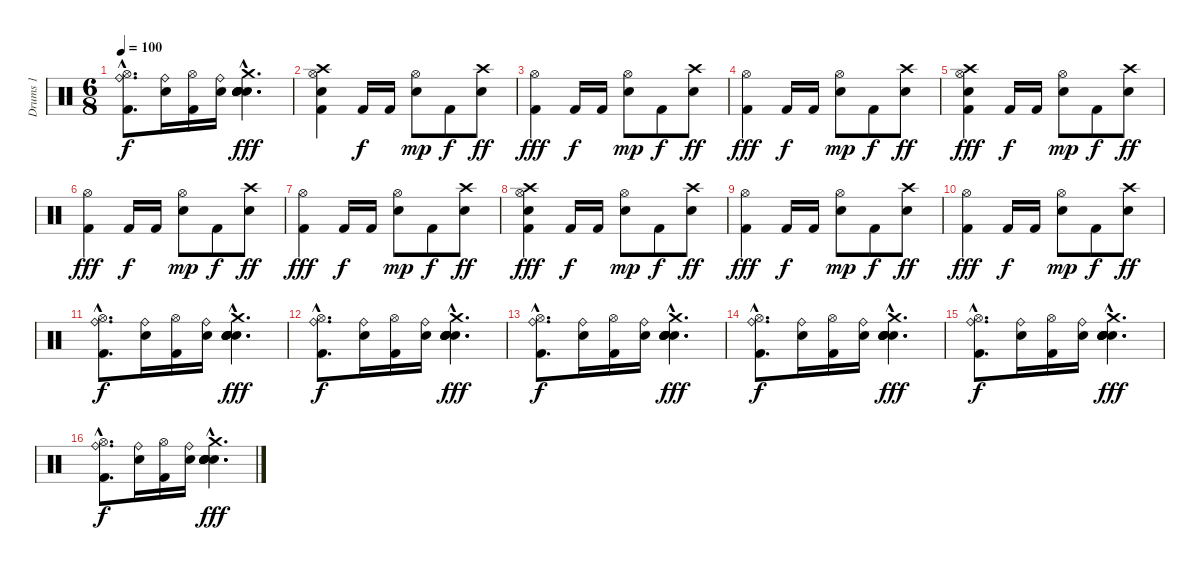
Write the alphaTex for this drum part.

\track ("Drums 1" "Drums 1") {instrument percussion}
\staff {score}
\articulation defaults
\ts (6 8)
\tempo 100
\clef neutral
\ks c
("Kick (hit) 2"{hac} "Ride (bell)"{hac} "Hi-Hat (open)"{hac}).8{d dy f} ("Snare (hit) 2" "Ride (bell)").16 ("Kick (hit) 2" "Hi-Hat (open)").16 ("Snare (hit) 2" "Ride (bell)").16 ("Snare (hit) 2"{hac} "Snare (hit) 2"{hac} "Snare (hit) 2"{hac} "Snare (hit) 2"{hac} "Snare (hit) 2"{hac} "Crash medium (hit)"{hac}).4{d bu 480 dy fff} |
("Kick (hit) 2" "Snare (hit) 2" "Crash high (hit)" "Hi-Hat (open)").4 "Kick (hit) 2".16{dy f} "Kick (hit) 2".16 ("Snare (hit) 2" "Hi-Hat (open)").8{dy mp} "Kick (hit) 2".8{dy f} ("Snare (hit) 2" "Crash high (hit)").8{dy ff} |
("Kick (hit) 2" "Hi-Hat (open)").4{dy fff} "Kick (hit) 2".16{dy f} "Kick (hit) 2".16 ("Snare (hit) 2" "Hi-Hat (open)").8{dy mp} "Kick (hit) 2".8{dy f} ("Snare (hit) 2" "Crash high (hit)").8{dy ff} |
("Kick (hit) 2" "Hi-Hat (open)").4{dy fff} "Kick (hit) 2".16{dy f} "Kick (hit) 2".16 ("Snare (hit) 2" "Hi-Hat (open)").8{dy mp} "Kick (hit) 2".8{dy f} ("Snare (hit) 2" "Crash high (hit)").8{dy ff} |
("Kick (hit) 2" "Snare (hit) 2" "Crash high (hit)" "Hi-Hat (open)").4{dy fff} "Kick (hit) 2".16{dy f} "Kick (hit) 2".16 ("Snare (hit) 2" "Hi-Hat (open)").8{dy mp} "Kick (hit) 2".8{dy f} ("Snare (hit) 2" "Crash high (hit)").8{dy ff} |
("Kick (hit) 2" "Hi-Hat (open)").4{dy fff} "Kick (hit) 2".16{dy f} "Kick (hit) 2".16 ("Snare (hit) 2" "Hi-Hat (open)").8{dy mp} "Kick (hit) 2".8{dy f} ("Snare (hit) 2" "Crash high (hit)").8{dy ff} |
("Kick (hit) 2" "Hi-Hat (open)").4{dy fff} "Kick (hit) 2".16{dy f} "Kick (hit) 2".16 ("Snare (hit) 2" "Hi-Hat (open)").8{dy mp} "Kick (hit) 2".8{dy f} ("Snare (hit) 2" "Crash high (hit)").8{dy ff} |
("Kick (hit) 2" "Snare (hit) 2" "Crash high (hit)" "Hi-Hat (open)").4{dy fff} "Kick (hit) 2".16{dy f} "Kick (hit) 2".16 ("Snare (hit) 2" "Hi-Hat (open)").8{dy mp} "Kick (hit) 2".8{dy f} ("Snare (hit) 2" "Crash high (hit)").8{dy ff} |
("Kick (hit) 2" "Hi-Hat (open)").4{dy fff} "Kick (hit) 2".16{dy f} "Kick (hit) 2".16 ("Snare (hit) 2" "Hi-Hat (open)").8{dy mp} "Kick (hit) 2".8{dy f} ("Snare (hit) 2" "Crash high (hit)").8{dy ff} |
("Kick (hit) 2" "Hi-Hat (open)").4{dy fff} "Kick (hit) 2".16{dy f} "Kick (hit) 2".16 ("Snare (hit) 2" "Hi-Hat (open)").8{dy mp} "Kick (hit) 2".8{dy f} ("Snare (hit) 2" "Crash high (hit)").8{dy ff} |
("Kick (hit) 2"{hac} "Ride (bell)"{hac} "Hi-Hat (open)"{hac}).8{d dy f} ("Snare (hit) 2" "Ride (bell)").16 ("Kick (hit) 2" "Hi-Hat (open)").16 ("Snare (hit) 2" "Ride (bell)").16 ("Snare (hit) 2"{hac} "Snare (hit) 2"{hac} "Snare (hit) 2"{hac} "Snare (hit) 2"{hac} "Snare (hit) 2"{hac} "Crash medium (hit)"{hac}).4{d bu 480 dy fff} |
("Kick (hit) 2"{hac} "Ride (bell)"{hac} "Hi-Hat (open)"{hac}).8{d dy f} ("Snare (hit) 2" "Ride (bell)").16 ("Kick (hit) 2" "Hi-Hat (open)").16 ("Snare (hit) 2" "Ride (bell)").16 ("Snare (hit) 2"{hac} "Snare (hit) 2"{hac} "Snare (hit) 2"{hac} "Snare (hit) 2"{hac} "Snare (hit) 2"{hac} "Crash medium (hit)"{hac}).4{d bu 480 dy fff} |
("Kick (hit) 2"{hac} "Ride (bell)"{hac} "Hi-Hat (open)"{hac}).8{d dy f} ("Snare (hit) 2" "Ride (bell)").16 ("Kick (hit) 2" "Hi-Hat (open)").16 ("Snare (hit) 2" "Ride (bell)").16 ("Snare (hit) 2"{hac} "Snare (hit) 2"{hac} "Snare (hit) 2"{hac} "Snare (hit) 2"{hac} "Snare (hit) 2"{hac} "Crash medium (hit)"{hac}).4{d bu 480 dy fff} |
("Kick (hit) 2"{hac} "Ride (bell)"{hac} "Hi-Hat (open)"{hac}).8{d dy f} ("Snare (hit) 2" "Ride (bell)").16 ("Kick (hit) 2" "Hi-Hat (open)").16 ("Snare (hit) 2" "Ride (bell)").16 ("Snare (hit) 2"{hac} "Snare (hit) 2"{hac} "Snare (hit) 2"{hac} "Snare (hit) 2"{hac} "Snare (hit) 2"{hac} "Crash medium (hit)"{hac}).4{d bu 480 dy fff} |
("Kick (hit) 2"{hac} "Ride (bell)"{hac} "Hi-Hat (open)"{hac}).8{d dy f} ("Snare (hit) 2" "Ride (bell)").16 ("Kick (hit) 2" "Hi-Hat (open)").16 ("Snare (hit) 2" "Ride (bell)").16 ("Snare (hit) 2"{hac} "Snare (hit) 2"{hac} "Snare (hit) 2"{hac} "Snare (hit) 2"{hac} "Snare (hit) 2"{hac} "Crash medium (hit)"{hac}).4{d bu 480 dy fff} |
("Kick (hit) 2"{hac} "Ride (bell)"{hac} "Hi-Hat (open)"{hac}).8{d dy f} ("Snare (hit) 2" "Ride (bell)").16 ("Kick (hit) 2" "Hi-Hat (open)").16 ("Snare (hit) 2" "Ride (bell)").16 ("Snare (hit) 2"{hac} "Snare (hit) 2"{hac} "Snare (hit) 2"{hac} "Snare (hit) 2"{hac} "Snare (hit) 2"{hac} "Crash medium (hit)"{hac}).4{d bu 480 dy fff}
